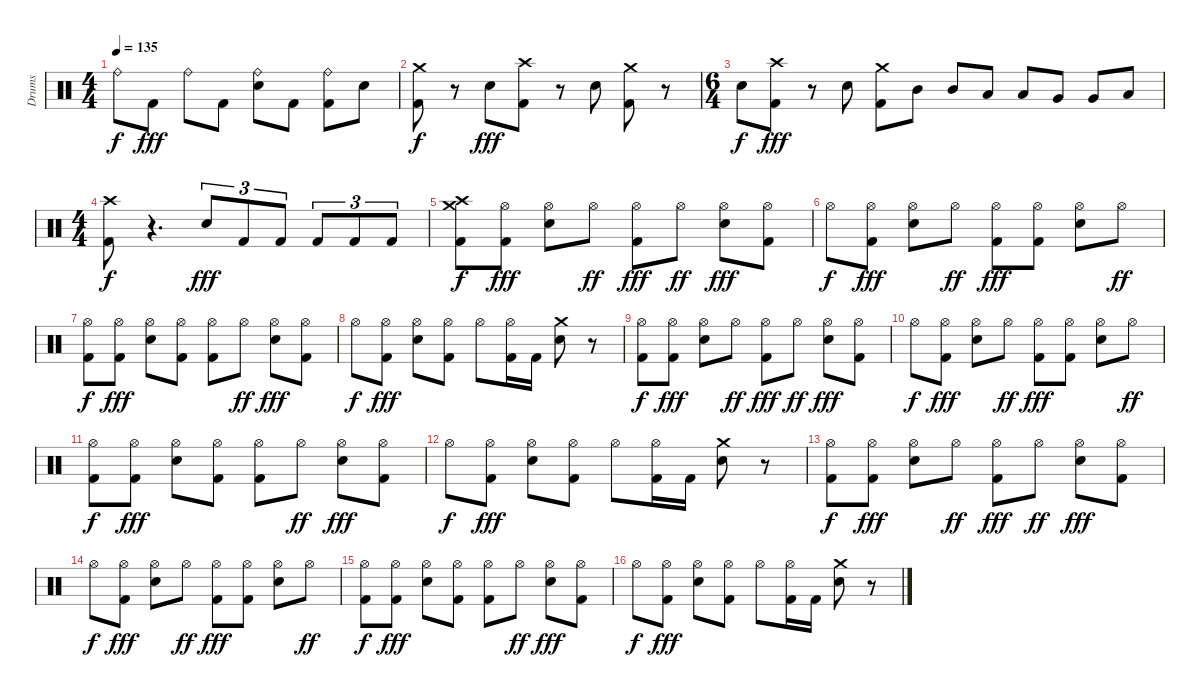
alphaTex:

\track ("Drums" "Drums") {instrument percussion}
\staff {score}
\articulation defaults
\ts (4 4)
\tempo 135
\clef neutral
\ks c "Ride (bell)".8{dy f} "Kick (hit) 2".8{dy fff} "Ride (bell)".8 "Kick (hit) 2".8
("Ride (bell)" "Snare (hit) 2").8 "Kick (hit) 2".8 ("Ride (bell)" "Kick (hit) 2").8 "Snare (hit) 2".8 |
("Kick (hit) 2" "Crash medium (hit)").8{dy f} r.8 "Snare (hit) 2".8{dy fff} ("Crash high (hit)" "Kick (hit) 2").8 r.8 "Snare (hit) 2".8 ("Crash medium (hit)" "Kick (hit) 2").8 r.8 |
\ts (6 4)
"Snare (hit) 2".8{dy f} ("Crash high (hit)" "Kick (hit) 2").8{dy fff} r.8 "Snare (hit) 2".8 ("Crash medium (hit)" "Kick (hit) 2").8 "Mid Tom (hit)".8 "Mid Tom (hit)".8 "Low Tom (hit)".8 "Low Tom (hit)".8 "Very Low Tom (hit)".8 "Very Low Tom (hit)".8 "Low Floor Tom (hit)".8 |
\ts (4 4)
("Crash high (hit)" "Kick (hit) 2").8{dy f} r.4{d} "Snare (hit) 2".8{tu (3 2) dy fff} "Kick (hit) 2".8{tu (3 2)} "Kick (hit) 2".8{tu (3 2)} "Kick (hit) 2".8{tu (3 2)} "Kick (hit) 2".8{tu (3 2)} "Kick (hit) 2".8{tu (3 2)} |
("Crash high (hit)" "Crash medium (hit)" "Kick (hit) 2").8{dy f} ("Hi-Hat (open)" "Kick (hit) 2").8{dy fff} ("Hi-Hat (open)" "Snare (hit) 2").8 "Hi-Hat (open)".8{dy ff} ("Hi-Hat (open)" "Kick (hit) 2").8{dy fff} "Hi-Hat (open)".8{dy ff} ("Hi-Hat (open)" "Snare (hit) 2").8{dy fff} ("Hi-Hat (open)" "Kick (hit) 2").8 |
"Hi-Hat (open)".8{dy f} ("Hi-Hat (open)" "Kick (hit) 2").8{dy fff} ("Hi-Hat (open)" "Snare (hit) 2").8 "Hi-Hat (open)".8{dy ff} ("Hi-Hat (open)" "Kick (hit) 2").8{dy fff} ("Hi-Hat (open)" "Kick (hit) 2").8 ("Hi-Hat (open)" "Snare (hit) 2").8 "Hi-Hat (open)".8{dy ff} |
("Hi-Hat (open)" "Kick (hit) 2").8{dy f} ("Hi-Hat (open)" "Kick (hit) 2").8{dy fff} ("Hi-Hat (open)" "Snare (hit) 2").8 ("Hi-Hat (open)" "Kick (hit) 2").8 ("Hi-Hat (open)" "Kick (hit) 2").8 "Hi-Hat (open)".8{dy ff} ("Hi-Hat (open)" "Snare (hit) 2").8{dy fff} ("Hi-Hat (open)" "Kick (hit) 2").8 |
"Hi-Hat (open)".8{dy f} ("Hi-Hat (open)" "Kick (hit) 2").8{dy fff} ("Hi-Hat (open)" "Snare (hit) 2").8 ("Hi-Hat (open)" "Kick (hit) 2").8 "Hi-Hat (open)".8 ("Hi-Hat (open)" "Kick (hit) 2").16 "Kick (hit) 2".16 ("Crash medium (hit)" "Snare (hit) 2").8 r.8 |
("Hi-Hat (open)" "Kick (hit) 2").8{dy f} ("Hi-Hat (open)" "Kick (hit) 2").8{dy fff} ("Hi-Hat (open)" "Snare (hit) 2").8 "Hi-Hat (open)".8{dy ff} ("Hi-Hat (open)" "Kick (hit) 2").8{dy fff} "Hi-Hat (open)".8{dy ff} ("Hi-Hat (open)" "Snare (hit) 2").8{dy fff} ("Hi-Hat (open)" "Kick (hit) 2").8 |
"Hi-Hat (open)".8{dy f} ("Hi-Hat (open)" "Kick (hit) 2").8{dy fff} ("Hi-Hat (open)" "Snare (hit) 2").8 "Hi-Hat (open)".8{dy ff} ("Hi-Hat (open)" "Kick (hit) 2").8{dy fff} ("Hi-Hat (open)" "Kick (hit) 2").8 ("Hi-Hat (open)" "Snare (hit) 2").8 "Hi-Hat (open)".8{dy ff} |
("Hi-Hat (open)" "Kick (hit) 2").8{dy f} ("Hi-Hat (open)" "Kick (hit) 2").8{dy fff} ("Hi-Hat (open)" "Snare (hit) 2").8 ("Hi-Hat (open)" "Kick (hit) 2").8 ("Hi-Hat (open)" "Kick (hit) 2").8 "Hi-Hat (open)".8{dy ff} ("Hi-Hat (open)" "Snare (hit) 2").8{dy fff} ("Hi-Hat (open)" "Kick (hit) 2").8 |
"Hi-Hat (open)".8{dy f} ("Hi-Hat (open)" "Kick (hit) 2").8{dy fff} ("Hi-Hat (open)" "Snare (hit) 2").8 ("Hi-Hat (open)" "Kick (hit) 2").8 "Hi-Hat (open)".8 ("Hi-Hat (open)" "Kick (hit) 2").16 "Kick (hit) 2".16 ("Crash medium (hit)" "Snare (hit) 2").8 r.8 |
("Hi-Hat (open)" "Kick (hit) 2").8{dy f} ("Hi-Hat (open)" "Kick (hit) 2").8{dy fff} ("Hi-Hat (open)" "Snare (hit) 2").8 "Hi-Hat (open)".8{dy ff} ("Hi-Hat (open)" "Kick (hit) 2").8{dy fff} "Hi-Hat (open)".8{dy ff} ("Hi-Hat (open)" "Snare (hit) 2").8{dy fff} ("Hi-Hat (open)" "Kick (hit) 2").8 |
"Hi-Hat (open)".8{dy f} ("Hi-Hat (open)" "Kick (hit) 2").8{dy fff} ("Hi-Hat (open)" "Snare (hit) 2").8 "Hi-Hat (open)".8{dy ff} ("Hi-Hat (open)" "Kick (hit) 2").8{dy fff} ("Hi-Hat (open)" "Kick (hit) 2").8 ("Hi-Hat (open)" "Snare (hit) 2").8 "Hi-Hat (open)".8{dy ff} |
("Hi-Hat (open)" "Kick (hit) 2").8{dy f} ("Hi-Hat (open)" "Kick (hit) 2").8{dy fff} ("Hi-Hat (open)" "Snare (hit) 2").8 ("Hi-Hat (open)" "Kick (hit) 2").8 ("Hi-Hat (open)" "Kick (hit) 2").8 "Hi-Hat (open)".8{dy ff} ("Hi-Hat (open)" "Snare (hit) 2").8{dy fff} ("Hi-Hat (open)" "Kick (hit) 2").8 |
"Hi-Hat (open)".8{dy f} ("Hi-Hat (open)" "Kick (hit) 2").8{dy fff} ("Hi-Hat (open)" "Snare (hit) 2").8 ("Hi-Hat (open)" "Kick (hit) 2").8 "Hi-Hat (open)".8 ("Hi-Hat (open)" "Kick (hit) 2").16 "Kick (hit) 2".16 ("Crash medium (hit)" "Snare (hit) 2").8 r.8
